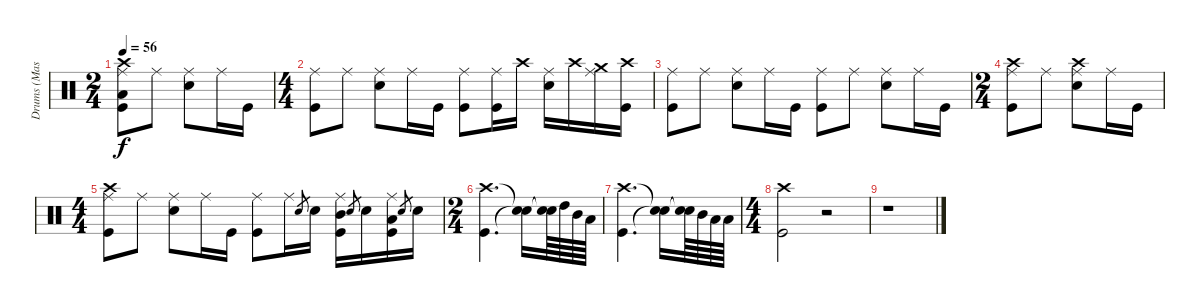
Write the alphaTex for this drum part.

\track ("Drums (Mason)" "Drums (Mas") {instrument percussion}
\staff {score}
\articulation defaults
\ts (2 4)
\tempo 56
\clef neutral
\ks c
("Ride (middle)" "Crash high (hit)" "Low Floor Tom (hit)" "Kick (hit)").8{dy f} "Ride (middle)".8 ("Ride (middle)" "Snare (hit) 2").8 "Ride (middle)".16 "Kick (hit)".16 |
\ts (4 4)
("Ride (middle)" "Kick (hit)").8 "Ride (middle)".8 ("Ride (middle)" "Snare (hit) 2").8 "Ride (middle)".16 "Kick (hit)".16 ("Ride (middle)" "Kick (hit)").8 ("Ride (middle)" "Kick (hit)").16 "Crash high (hit)".16 ("Ride (middle)" "Snare (hit) 2").16 "Crash high (hit)".16 ("Ride (middle)" "Crash medium (hit)").16 ("Crash high (hit)" "Kick (hit)").16 |
("Ride (middle)" "Kick (hit)").8 "Ride (middle)".8 ("Ride (middle)" "Snare (hit) 2").8 "Ride (middle)".16 "Kick (hit)".16 ("Ride (middle)" "Kick (hit)").8 "Ride (middle)".8 ("Ride (middle)" "Snare (hit) 2").8 "Ride (middle)".16 "Kick (hit)".16 |
\ts (2 4)
("Ride (middle)" "Crash high (hit)" "Kick (hit)").8 "Ride (middle)".8 ("Ride (middle)" "Crash high (hit)" "Snare (hit) 2").8 "Ride (middle)".16 "Kick (hit)".16 |
\ts (4 4)
("Ride (middle)" "Crash high (hit)" "Kick (hit)").8 "Ride (middle)".8 ("Ride (middle)" "Snare (hit) 2").8 "Ride (middle)".16 "Kick (hit)".16 ("Ride (middle)" "Kick (hit)").8 "Ride (middle)".16 "Snare (hit) 2".8{gr} "Snare (hit) 2".16 ("Ride (middle)" "Mid Tom (hit)" "Kick (hit)").16 "Snare (hit) 2".8{gr} "Snare (hit) 2".16 ("Ride (middle)" "Low Tom (hit)" "Kick (hit)").16 "Snare (hit) 2".8{gr} "Snare (hit) 2".16 |
\ts (2 4)
("Crash high (hit)" "Kick (hit)").4{d} ("Snare (hit)"{t} "Snare (hit)"{t}).16 ("Snare (hit)"{t} "Snare (hit)"{t}).64 "High Tom (hit)".64 "Mid Tom (hit)".64 "Low Tom (hit)".64 |
("Crash high (hit)" "Kick (hit)").4{d} ("Snare (hit)"{t} "Snare (hit)"{t}).16 ("Snare (hit)"{t} "Snare (hit)"{t}).64 "Mid Tom (hit)".64 "Low Tom (hit)".64 "Low Floor Tom (hit)".64 |
\ts (4 4)
("Crash high (hit)" "Kick (hit)").2 r.2 |
r.1
